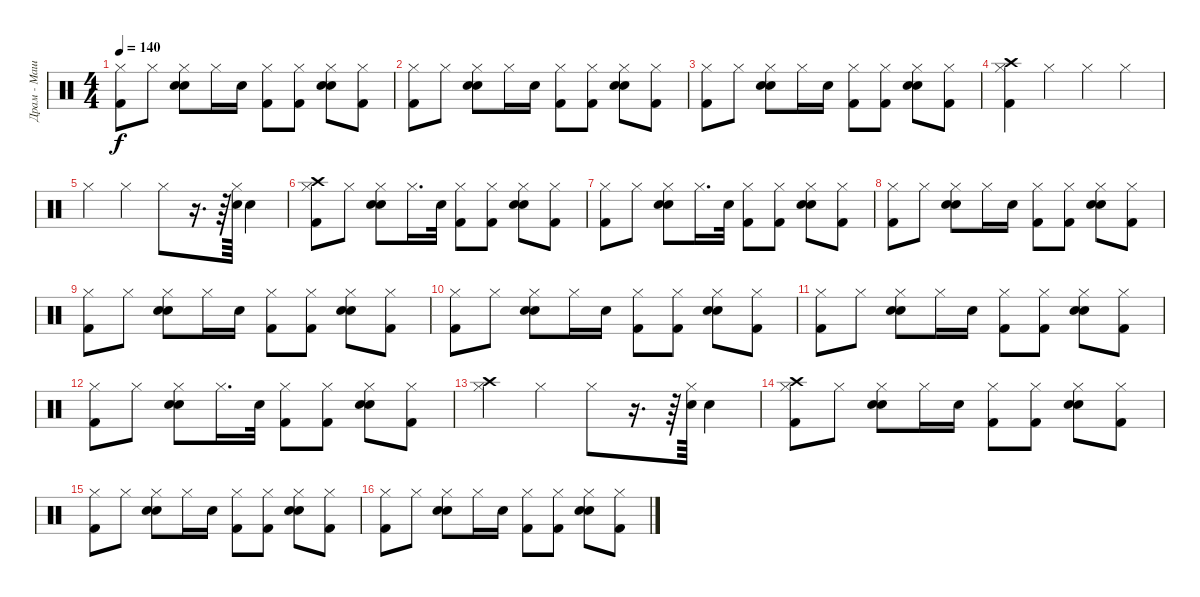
\track ("Драм - Машина" "Драм - Маш") {instrument percussion}
\staff {score}
\articulation defaults
\ts (4 4)
\tempo 140
\clef neutral
\ks c
("Kick (hit) 2" "Hi-Hat (closed)").8{dy f} "Hi-Hat (closed)".8 ("Hand Clap (hit)" "Snare (hit) 2" "Hi-Hat (closed)").8 "Hi-Hat (closed)".16 "Snare (hit) 2".16 ("Kick (hit) 2" "Hi-Hat (closed)").8 ("Hi-Hat (closed)" "Kick (hit) 2").8 ("Hand Clap (hit)" "Snare (hit) 2" "Hi-Hat (closed)").8 ("Hi-Hat (closed)" "Kick (hit) 2").8 |
("Kick (hit) 2" "Hi-Hat (closed)").8 "Hi-Hat (closed)".8 ("Hand Clap (hit)" "Snare (hit) 2" "Hi-Hat (closed)").8 "Hi-Hat (closed)".16 "Snare (hit) 2".16 ("Kick (hit) 2" "Hi-Hat (closed)").8 ("Hi-Hat (closed)" "Kick (hit) 2").8 ("Hand Clap (hit)" "Snare (hit) 2" "Hi-Hat (closed)").8 ("Hi-Hat (closed)" "Kick (hit) 2").8 |
("Kick (hit) 2" "Hi-Hat (closed)").8 "Hi-Hat (closed)".8 ("Hand Clap (hit)" "Snare (hit) 2" "Hi-Hat (closed)").8 "Hi-Hat (closed)".16 "Snare (hit) 2".16 ("Kick (hit) 2" "Hi-Hat (closed)").8 ("Hi-Hat (closed)" "Kick (hit) 2").8 ("Hand Clap (hit)" "Snare (hit) 2" "Hi-Hat (closed)").8 ("Hi-Hat (closed)" "Kick (hit) 2").8 |
("Crash high (hit)" "Kick (hit) 2" "Hi-Hat (closed)").4 "Hi-Hat (closed)".4 "Hi-Hat (closed)".4 "Hi-Hat (closed)".4 |
"Hi-Hat (closed)".4 "Hi-Hat (closed)".4 "Hi-Hat (closed)".8 r.16{d} r.64 ("Snare (hit) 2" "Hi-Hat (closed)").64 "Electric Snare (hit)".4 |
("Kick (hit) 2" "Crash high (hit)" "Hi-Hat (closed)").8 "Hi-Hat (closed)".8 ("Hand Clap (hit)" "Snare (hit) 2" "Hi-Hat (closed)").8 "Hi-Hat (closed)".16{d} "Snare (hit) 2".32 ("Kick (hit) 2" "Hi-Hat (closed)").8 ("Hi-Hat (closed)" "Kick (hit) 2").8 ("Hand Clap (hit)" "Snare (hit) 2" "Hi-Hat (closed)").8 ("Hi-Hat (closed)" "Kick (hit) 2").8 |
("Kick (hit) 2" "Hi-Hat (closed)").8 "Hi-Hat (closed)".8 ("Hand Clap (hit)" "Snare (hit) 2" "Hi-Hat (closed)").8 "Hi-Hat (closed)".16{d} "Snare (hit) 2".32 ("Kick (hit) 2" "Hi-Hat (closed)").8 ("Hi-Hat (closed)" "Kick (hit) 2").8 ("Hand Clap (hit)" "Snare (hit) 2" "Hi-Hat (closed)").8 ("Hi-Hat (closed)" "Kick (hit) 2").8 |
("Kick (hit) 2" "Hi-Hat (closed)").8 "Hi-Hat (closed)".8 ("Hand Clap (hit)" "Snare (hit) 2" "Hi-Hat (closed)").8 "Hi-Hat (closed)".16 "Snare (hit) 2".16 ("Kick (hit) 2" "Hi-Hat (closed)").8 ("Hi-Hat (closed)" "Kick (hit) 2").8 ("Hand Clap (hit)" "Snare (hit) 2" "Hi-Hat (closed)").8 ("Hi-Hat (closed)" "Kick (hit) 2").8 |
("Kick (hit) 2" "Hi-Hat (closed)").8 "Hi-Hat (closed)".8 ("Hand Clap (hit)" "Snare (hit) 2" "Hi-Hat (closed)").8 "Hi-Hat (closed)".16 "Snare (hit) 2".16 ("Kick (hit) 2" "Hi-Hat (closed)").8 ("Hi-Hat (closed)" "Kick (hit) 2").8 ("Hand Clap (hit)" "Snare (hit) 2" "Hi-Hat (closed)").8 ("Hi-Hat (closed)" "Kick (hit) 2").8 |
("Kick (hit) 2" "Hi-Hat (closed)").8 "Hi-Hat (closed)".8 ("Hand Clap (hit)" "Snare (hit) 2" "Hi-Hat (closed)").8 "Hi-Hat (closed)".16 "Snare (hit) 2".16 ("Kick (hit) 2" "Hi-Hat (closed)").8 ("Hi-Hat (closed)" "Kick (hit) 2").8 ("Hand Clap (hit)" "Snare (hit) 2" "Hi-Hat (closed)").8 ("Hi-Hat (closed)" "Kick (hit) 2").8 |
("Kick (hit) 2" "Hi-Hat (closed)").8 "Hi-Hat (closed)".8 ("Hand Clap (hit)" "Snare (hit) 2" "Hi-Hat (closed)").8 "Hi-Hat (closed)".16 "Snare (hit) 2".16 ("Kick (hit) 2" "Hi-Hat (closed)").8 ("Hi-Hat (closed)" "Kick (hit) 2").8 ("Hand Clap (hit)" "Snare (hit) 2" "Hi-Hat (closed)").8 ("Hi-Hat (closed)" "Kick (hit) 2").8 |
("Kick (hit) 2" "Hi-Hat (closed)").8 "Hi-Hat (closed)".8 ("Hand Clap (hit)" "Snare (hit) 2" "Hi-Hat (closed)").8 "Hi-Hat (closed)".16{d} "Snare (hit) 2".32 ("Kick (hit) 2" "Hi-Hat (closed)").8 ("Hi-Hat (closed)" "Kick (hit) 2").8 ("Hand Clap (hit)" "Snare (hit) 2" "Hi-Hat (closed)").8 ("Hi-Hat (closed)" "Kick (hit) 2").8 |
("Crash high (hit)" "Hi-Hat (closed)").4 "Hi-Hat (closed)".4 "Hi-Hat (closed)".8 r.16{d} r.64 ("Snare (hit) 2" "Hi-Hat (closed)").64 "Electric Snare (hit)".4 |
("Kick (hit) 2" "Hi-Hat (closed)" "Crash high (hit)").8 "Hi-Hat (closed)".8 ("Hand Clap (hit)" "Snare (hit) 2" "Hi-Hat (closed)").8 "Hi-Hat (closed)".16 "Snare (hit) 2".16 ("Kick (hit) 2" "Hi-Hat (closed)").8 ("Hi-Hat (closed)" "Kick (hit) 2").8 ("Hand Clap (hit)" "Snare (hit) 2" "Hi-Hat (closed)").8 ("Hi-Hat (closed)" "Kick (hit) 2").8 |
("Kick (hit) 2" "Hi-Hat (closed)").8 "Hi-Hat (closed)".8 ("Hand Clap (hit)" "Snare (hit) 2" "Hi-Hat (closed)").8 "Hi-Hat (closed)".16 "Snare (hit) 2".16 ("Kick (hit) 2" "Hi-Hat (closed)").8 ("Hi-Hat (closed)" "Kick (hit) 2").8 ("Hand Clap (hit)" "Snare (hit) 2" "Hi-Hat (closed)").8 ("Hi-Hat (closed)" "Kick (hit) 2").8 |
("Kick (hit) 2" "Hi-Hat (closed)").8 "Hi-Hat (closed)".8 ("Hand Clap (hit)" "Snare (hit) 2" "Hi-Hat (closed)").8 "Hi-Hat (closed)".16 "Snare (hit) 2".16 ("Kick (hit) 2" "Hi-Hat (closed)").8 ("Hi-Hat (closed)" "Kick (hit) 2").8 ("Hand Clap (hit)" "Snare (hit) 2" "Hi-Hat (closed)").8 ("Hi-Hat (closed)" "Kick (hit) 2").8
